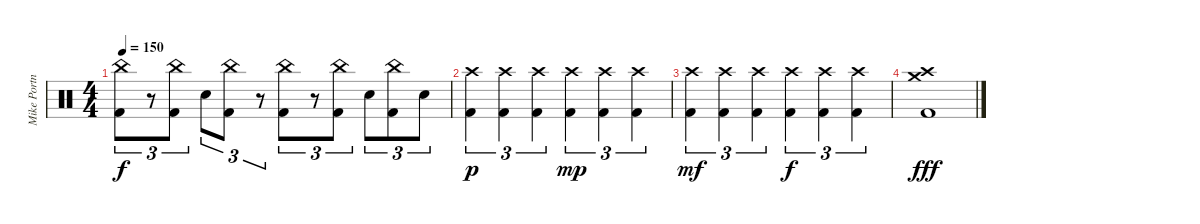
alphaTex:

\track ("Mike Portnoy" "Mike Portn") {instrument percussion}
\staff {score}
\articulation defaults
\ts (4 4)
\tempo 150
\clef neutral
\ks c
("China (hit)" "Kick (hit) 2").8{tu (3 2) dy f} r.8{tu (3 2)} ("China (hit)" "Kick (hit) 2").8{tu (3 2)} "Electric Snare (hit)".8{tu (3 2)} ("China (hit)" "Kick (hit) 2").8{tu (3 2)} r.8{tu (3 2)} ("China (hit)" "Kick (hit) 2").8{tu (3 2)} r.8{tu (3 2)} ("China (hit)" "Kick (hit) 2").8{tu (3 2)} "Electric Snare (hit)".8{tu (3 2)} ("China (hit)" "Kick (hit) 2").8{tu (3 2)} "Electric Snare (hit)".8{tu (3 2)} |
("Crash high (hit)" "Kick (hit) 2").4{tu (3 2) dy p} ("Crash high (hit)" "Kick (hit) 2").4{tu (3 2)} ("Crash high (hit)" "Kick (hit) 2").4{tu (3 2)} ("Crash high (hit)" "Kick (hit) 2").4{tu (3 2) dy mp} ("Crash high (hit)" "Kick (hit) 2").4{tu (3 2)} ("Crash high (hit)" "Kick (hit) 2").4{tu (3 2)} |
("Crash high (hit)" "Kick (hit) 2").4{tu (3 2) dy mf} ("Crash high (hit)" "Kick (hit) 2").4{tu (3 2)} ("Crash high (hit)" "Kick (hit) 2").4{tu (3 2)} ("Crash high (hit)" "Kick (hit) 2").4{tu (3 2) dy f} ("Crash high (hit)" "Kick (hit) 2").4{tu (3 2)} ("Crash high (hit)" "Kick (hit) 2").4{tu (3 2)} |
("Crash medium (hit)" "Crash high (hit)" "Kick (hit) 2").1{dy fff}
